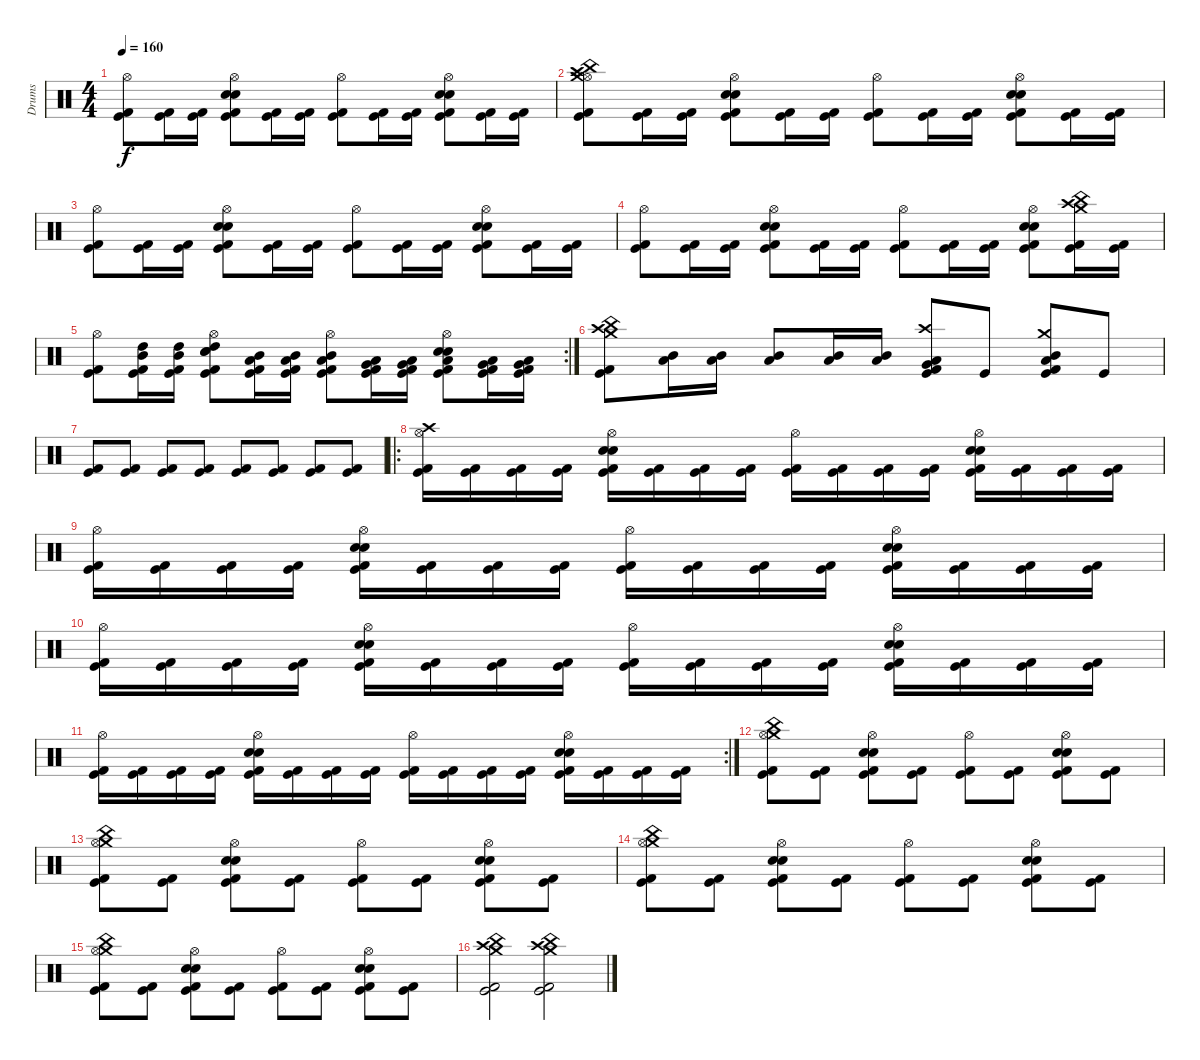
\track ("Drums" "Drums") {instrument percussion}
\staff {score}
\articulation defaults
\ts (4 4)
\tempo 160
\clef neutral
\ks c
("Hi-Hat (open)" "Kick (hit) 2" "Kick (hit)").8{dy f} ("Kick (hit) 2" "Kick (hit)").16 ("Kick (hit) 2" "Kick (hit)").16 ("Hi-Hat (open)" "Electric Snare (hit)" "Snare (hit) 2" "Kick (hit) 2" "Kick (hit)").8 ("Kick (hit) 2" "Kick (hit)").16 ("Kick (hit) 2" "Kick (hit)").16 ("Hi-Hat (open)" "Kick (hit) 2" "Kick (hit)").8 ("Kick (hit) 2" "Kick (hit)").16 ("Kick (hit) 2" "Kick (hit)").16 ("Hi-Hat (open)" "Electric Snare (hit)" "Snare (hit) 2" "Kick (hit) 2" "Kick (hit)").8 ("Kick (hit) 2" "Kick (hit)").16 ("Kick (hit) 2" "Kick (hit)").16 |
("Crash high (hit)" "Hi-Hat (open)" "Crash medium (hit)" "China (hit)" "Kick (hit) 2" "Kick (hit)").8 ("Kick (hit) 2" "Kick (hit)").16 ("Kick (hit) 2" "Kick (hit)").16 ("Hi-Hat (open)" "Electric Snare (hit)" "Snare (hit) 2" "Kick (hit) 2" "Kick (hit)").8 ("Kick (hit) 2" "Kick (hit)").16 ("Kick (hit) 2" "Kick (hit)").16 ("Hi-Hat (open)" "Kick (hit) 2" "Kick (hit)").8 ("Kick (hit) 2" "Kick (hit)").16 ("Kick (hit) 2" "Kick (hit)").16 ("Hi-Hat (open)" "Electric Snare (hit)" "Snare (hit) 2" "Kick (hit) 2" "Kick (hit)").8 ("Kick (hit) 2" "Kick (hit)").16 ("Kick (hit) 2" "Kick (hit)").16 |
("Hi-Hat (open)" "Kick (hit) 2" "Kick (hit)").8 ("Kick (hit) 2" "Kick (hit)").16 ("Kick (hit) 2" "Kick (hit)").16 ("Hi-Hat (open)" "Electric Snare (hit)" "Snare (hit) 2" "Kick (hit) 2" "Kick (hit)").8 ("Kick (hit) 2" "Kick (hit)").16 ("Kick (hit) 2" "Kick (hit)").16 ("Hi-Hat (open)" "Kick (hit) 2" "Kick (hit)").8 ("Kick (hit) 2" "Kick (hit)").16 ("Kick (hit) 2" "Kick (hit)").16 ("Hi-Hat (open)" "Electric Snare (hit)" "Snare (hit) 2" "Kick (hit) 2" "Kick (hit)").8 ("Kick (hit) 2" "Kick (hit)").16 ("Kick (hit) 2" "Kick (hit)").16 |
("Hi-Hat (open)" "Kick (hit) 2" "Kick (hit)").8 ("Kick (hit) 2" "Kick (hit)").16 ("Kick (hit) 2" "Kick (hit)").16 ("Hi-Hat (open)" "Electric Snare (hit)" "Snare (hit) 2" "Kick (hit) 2" "Kick (hit)").8 ("Kick (hit) 2" "Kick (hit)").16 ("Kick (hit) 2" "Kick (hit)").16 ("Hi-Hat (open)" "Kick (hit) 2" "Kick (hit)").8 ("Kick (hit) 2" "Kick (hit)").16 ("Kick (hit) 2" "Kick (hit)").16 ("Hi-Hat (open)" "Electric Snare (hit)" "Snare (hit) 2" "Kick (hit) 2" "Kick (hit)").8 ("China (hit)" "Crash medium (hit)" "Crash high (hit)" "Kick (hit) 2" "Kick (hit)").16 ("Kick (hit) 2" "Kick (hit)").16 |
\rc 2
("Hi-Hat (open)" "Kick (hit) 2" "Kick (hit)").8 ("High Tom (hit)" "Mid Tom (hit)" "Kick (hit) 2" "Kick (hit)").16 ("High Tom (hit)" "Mid Tom (hit)" "Kick (hit) 2" "Kick (hit)").16 ("High Tom (hit)" "Hi-Hat (open)" "Electric Snare (hit)" "Snare (hit) 2" "Kick (hit) 2" "Kick (hit)").8 ("Low Tom (hit)" "Mid Tom (hit)" "Kick (hit) 2" "Kick (hit)").16 ("Low Tom (hit)" "Mid Tom (hit)" "Kick (hit) 2" "Kick (hit)").16 ("Hi-Hat (open)" "Low Tom (hit)" "Mid Tom (hit)" "Kick (hit) 2" "Kick (hit)").8 ("Very Low Tom (hit)" "Low Tom (hit)" "Kick (hit) 2" "Kick (hit)").16 ("Very Low Tom (hit)" "Low Tom (hit)" "Kick (hit) 2" "Kick (hit)").16 ("Low Tom (hit)" "Hi-Hat (open)" "Electric Snare (hit)" "Snare (hit) 2" "Kick (hit) 2" "Kick (hit)").8 ("Low Floor Tom (hit)" "Very Low Tom (hit)" "Kick (hit) 2" "Kick (hit)").16 ("Low Floor Tom (hit)" "Very Low Tom (hit)" "Kick (hit) 2" "Kick (hit)").16 |
("China (hit)" "Crash high (hit)" "Crash medium (hit)" "Kick (hit) 2" "Kick (hit)").8 ("Mid Tom (hit)" "Low Tom (hit)").16 ("Mid Tom (hit)" "Low Tom (hit)").16 ("Mid Tom (hit)" "Low Tom (hit)").8 ("Mid Tom (hit)" "Low Tom (hit)").16 ("Mid Tom (hit)" "Low Tom (hit)").16 ("Crash high (hit)" "Very Low Tom (hit)" "Low Tom (hit)" "Kick (hit) 2" "Kick (hit)").8 "Kick (hit)".8 ("Crash medium (hit)" "Mid Tom (hit)" "Low Tom (hit)" "Kick (hit)" "Kick (hit) 2").8 "Kick (hit)".8 |
("Kick (hit) 2" "Kick (hit)").8 ("Kick (hit) 2" "Kick (hit)").8 ("Kick (hit) 2" "Kick (hit)").8 ("Kick (hit) 2" "Kick (hit)").8 ("Kick (hit) 2" "Kick (hit)").8 ("Kick (hit) 2" "Kick (hit)").8 ("Kick (hit) 2" "Kick (hit)").8 ("Kick (hit) 2" "Kick (hit)").8 |
\ro
("Crash high (hit)" "Hi-Hat (open)" "Kick (hit) 2" "Kick (hit)").16 ("Kick (hit) 2" "Kick (hit)").16 ("Kick (hit) 2" "Kick (hit)").16 ("Kick (hit) 2" "Kick (hit)").16 ("Hi-Hat (open)" "Electric Snare (hit)" "Snare (hit) 2" "Kick (hit) 2" "Kick (hit)").16 ("Kick (hit) 2" "Kick (hit)").16 ("Kick (hit) 2" "Kick (hit)").16 ("Kick (hit) 2" "Kick (hit)").16 ("Hi-Hat (open)" "Kick (hit) 2" "Kick (hit)").16 ("Kick (hit) 2" "Kick (hit)").16 ("Kick (hit) 2" "Kick (hit)").16 ("Kick (hit) 2" "Kick (hit)").16 ("Hi-Hat (open)" "Electric Snare (hit)" "Snare (hit) 2" "Kick (hit) 2" "Kick (hit)").16 ("Kick (hit) 2" "Kick (hit)").16 ("Kick (hit) 2" "Kick (hit)").16 ("Kick (hit) 2" "Kick (hit)").16 |
("Hi-Hat (open)" "Kick (hit) 2" "Kick (hit)").16 ("Kick (hit) 2" "Kick (hit)").16 ("Kick (hit) 2" "Kick (hit)").16 ("Kick (hit) 2" "Kick (hit)").16 ("Hi-Hat (open)" "Electric Snare (hit)" "Snare (hit) 2" "Kick (hit) 2" "Kick (hit)").16 ("Kick (hit) 2" "Kick (hit)").16 ("Kick (hit) 2" "Kick (hit)").16 ("Kick (hit) 2" "Kick (hit)").16 ("Hi-Hat (open)" "Kick (hit) 2" "Kick (hit)").16 ("Kick (hit) 2" "Kick (hit)").16 ("Kick (hit) 2" "Kick (hit)").16 ("Kick (hit) 2" "Kick (hit)").16 ("Hi-Hat (open)" "Electric Snare (hit)" "Snare (hit) 2" "Kick (hit) 2" "Kick (hit)").16 ("Kick (hit) 2" "Kick (hit)").16 ("Kick (hit) 2" "Kick (hit)").16 ("Kick (hit) 2" "Kick (hit)").16 |
("Hi-Hat (open)" "Kick (hit) 2" "Kick (hit)").16 ("Kick (hit) 2" "Kick (hit)").16 ("Kick (hit) 2" "Kick (hit)").16 ("Kick (hit) 2" "Kick (hit)").16 ("Hi-Hat (open)" "Electric Snare (hit)" "Snare (hit) 2" "Kick (hit) 2" "Kick (hit)").16 ("Kick (hit) 2" "Kick (hit)").16 ("Kick (hit) 2" "Kick (hit)").16 ("Kick (hit) 2" "Kick (hit)").16 ("Hi-Hat (open)" "Kick (hit) 2" "Kick (hit)").16 ("Kick (hit) 2" "Kick (hit)").16 ("Kick (hit) 2" "Kick (hit)").16 ("Kick (hit) 2" "Kick (hit)").16 ("Hi-Hat (open)" "Electric Snare (hit)" "Snare (hit) 2" "Kick (hit) 2" "Kick (hit)").16 ("Kick (hit) 2" "Kick (hit)").16 ("Kick (hit) 2" "Kick (hit)").16 ("Kick (hit) 2" "Kick (hit)").16 |
\rc 2
("Hi-Hat (open)" "Kick (hit) 2" "Kick (hit)").16 ("Kick (hit) 2" "Kick (hit)").16 ("Kick (hit) 2" "Kick (hit)").16 ("Kick (hit) 2" "Kick (hit)").16 ("Hi-Hat (open)" "Electric Snare (hit)" "Snare (hit) 2" "Kick (hit) 2" "Kick (hit)").16 ("Kick (hit) 2" "Kick (hit)").16 ("Kick (hit) 2" "Kick (hit)").16 ("Kick (hit) 2" "Kick (hit)").16 ("Hi-Hat (open)" "Kick (hit) 2" "Kick (hit)").16 ("Kick (hit) 2" "Kick (hit)").16 ("Kick (hit) 2" "Kick (hit)").16 ("Kick (hit) 2" "Kick (hit)").16 ("Hi-Hat (open)" "Electric Snare (hit)" "Snare (hit) 2" "Kick (hit) 2" "Kick (hit)").16 ("Kick (hit) 2" "Kick (hit)").16 ("Kick (hit) 2" "Kick (hit)").16 ("Kick (hit) 2" "Kick (hit)").16 |
("Crash medium (hit)" "Hi-Hat (open)" "China (hit)" "Kick (hit)" "Kick (hit) 2").8 ("Kick (hit)" "Kick (hit) 2").8 ("Hi-Hat (open)" "Electric Snare (hit)" "Snare (hit) 2" "Kick (hit)" "Kick (hit) 2").8 ("Kick (hit)" "Kick (hit) 2").8 ("Hi-Hat (open)" "Kick (hit)" "Kick (hit) 2").8 ("Kick (hit)" "Kick (hit) 2").8 ("Hi-Hat (open)" "Electric Snare (hit)" "Snare (hit) 2" "Kick (hit)" "Kick (hit) 2").8 ("Kick (hit)" "Kick (hit) 2").8 |
("Crash medium (hit)" "Hi-Hat (open)" "China (hit)" "Kick (hit)" "Kick (hit) 2").8 ("Kick (hit)" "Kick (hit) 2").8 ("Hi-Hat (open)" "Electric Snare (hit)" "Snare (hit) 2" "Kick (hit)" "Kick (hit) 2").8 ("Kick (hit)" "Kick (hit) 2").8 ("Hi-Hat (open)" "Kick (hit)" "Kick (hit) 2").8 ("Kick (hit)" "Kick (hit) 2").8 ("Hi-Hat (open)" "Electric Snare (hit)" "Snare (hit) 2" "Kick (hit)" "Kick (hit) 2").8 ("Kick (hit)" "Kick (hit) 2").8 |
("Crash medium (hit)" "Hi-Hat (open)" "China (hit)" "Kick (hit)" "Kick (hit) 2").8 ("Kick (hit)" "Kick (hit) 2").8 ("Hi-Hat (open)" "Electric Snare (hit)" "Snare (hit) 2" "Kick (hit)" "Kick (hit) 2").8 ("Kick (hit)" "Kick (hit) 2").8 ("Hi-Hat (open)" "Kick (hit)" "Kick (hit) 2").8 ("Kick (hit)" "Kick (hit) 2").8 ("Hi-Hat (open)" "Electric Snare (hit)" "Snare (hit) 2" "Kick (hit)" "Kick (hit) 2").8 ("Kick (hit)" "Kick (hit) 2").8 |
("Crash medium (hit)" "Hi-Hat (open)" "China (hit)" "Kick (hit)" "Kick (hit) 2").8 ("Kick (hit)" "Kick (hit) 2").8 ("Hi-Hat (open)" "Electric Snare (hit)" "Snare (hit) 2" "Kick (hit)" "Kick (hit) 2").8 ("Kick (hit)" "Kick (hit) 2").8 ("Hi-Hat (open)" "Kick (hit)" "Kick (hit) 2").8 ("Kick (hit)" "Kick (hit) 2").8 ("Hi-Hat (open)" "Electric Snare (hit)" "Snare (hit) 2" "Kick (hit)" "Kick (hit) 2").8 ("Kick (hit)" "Kick (hit) 2").8 |
("Crash medium (hit)" "Crash high (hit)" "China (hit)" "Kick (hit) 2" "Kick (hit)").2 ("Crash medium (hit)" "Crash high (hit)" "China (hit)" "Kick (hit)" "Kick (hit) 2").2
